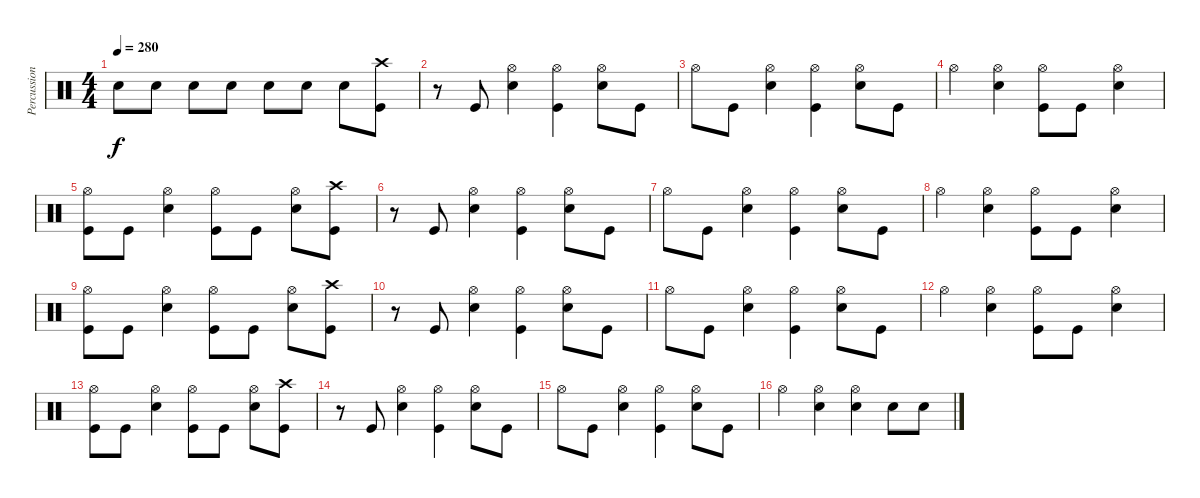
\track ("Percussion" "Percussion") {instrument percussion}
\staff {score}
\articulation defaults
\ts (4 4)
\tempo 280
\clef neutral
\ks c "Snare (hit) 2".8{dy f} "Snare (hit) 2".8 "Snare (hit) 2".8 "Snare (hit) 2".8 "Snare (hit) 2".8 "Snare (hit) 2".8 "Snare (hit) 2".8
("Kick (hit)" "Crash high (hit)").8 |
r.8 "Kick (hit)".8 ("Snare (hit) 2" "Hi-Hat (open)").4 ("Kick (hit)" "Hi-Hat (open)").4 ("Snare (hit) 2" "Hi-Hat (open)").8 "Kick (hit)".8 |
"Hi-Hat (open)".8 "Kick (hit)".8 ("Snare (hit) 2" "Hi-Hat (open)").4 ("Kick (hit)" "Hi-Hat (open)").4 ("Snare (hit) 2" "Hi-Hat (open)").8 "Kick (hit)".8 |
"Hi-Hat (open)".4 ("Snare (hit) 2" "Hi-Hat (open)").4 ("Kick (hit)" "Hi-Hat (open)").8 "Kick (hit)".8 ("Hi-Hat (open)" "Snare (hit) 2").4 |
("Kick (hit)" "Hi-Hat (open)").8 "Kick (hit)".8 ("Snare (hit) 2" "Hi-Hat (open)").4 ("Kick (hit)" "Hi-Hat (open)").8 "Kick (hit)".8 ("Hi-Hat (open)" "Snare (hit) 2").8 ("Kick (hit)" "Crash high (hit)").8 |
r.8 "Kick (hit)".8 ("Snare (hit) 2" "Hi-Hat (open)").4 ("Kick (hit)" "Hi-Hat (open)").4 ("Snare (hit) 2" "Hi-Hat (open)").8 "Kick (hit)".8 |
"Hi-Hat (open)".8 "Kick (hit)".8 ("Snare (hit) 2" "Hi-Hat (open)").4 ("Kick (hit)" "Hi-Hat (open)").4 ("Snare (hit) 2" "Hi-Hat (open)").8 "Kick (hit)".8 |
"Hi-Hat (open)".4 ("Snare (hit) 2" "Hi-Hat (open)").4 ("Kick (hit)" "Hi-Hat (open)").8 "Kick (hit)".8 ("Hi-Hat (open)" "Snare (hit) 2").4 |
("Kick (hit)" "Hi-Hat (open)").8 "Kick (hit)".8 ("Snare (hit) 2" "Hi-Hat (open)").4 ("Kick (hit)" "Hi-Hat (open)").8 "Kick (hit)".8 ("Hi-Hat (open)" "Snare (hit) 2").8 ("Kick (hit)" "Crash high (hit)").8 |
r.8 "Kick (hit)".8 ("Snare (hit) 2" "Hi-Hat (open)").4 ("Kick (hit)" "Hi-Hat (open)").4 ("Snare (hit) 2" "Hi-Hat (open)").8 "Kick (hit)".8 |
"Hi-Hat (open)".8 "Kick (hit)".8 ("Snare (hit) 2" "Hi-Hat (open)").4 ("Kick (hit)" "Hi-Hat (open)").4 ("Snare (hit) 2" "Hi-Hat (open)").8 "Kick (hit)".8 |
"Hi-Hat (open)".4 ("Snare (hit) 2" "Hi-Hat (open)").4 ("Kick (hit)" "Hi-Hat (open)").8 "Kick (hit)".8 ("Hi-Hat (open)" "Snare (hit) 2").4 |
("Kick (hit)" "Hi-Hat (open)").8 "Kick (hit)".8 ("Snare (hit) 2" "Hi-Hat (open)").4 ("Kick (hit)" "Hi-Hat (open)").8 "Kick (hit)".8 ("Hi-Hat (open)" "Snare (hit) 2").8 ("Kick (hit)" "Crash high (hit)").8 |
r.8 "Kick (hit)".8 ("Snare (hit) 2" "Hi-Hat (open)").4 ("Kick (hit)" "Hi-Hat (open)").4 ("Snare (hit) 2" "Hi-Hat (open)").8 "Kick (hit)".8 |
"Hi-Hat (open)".8 "Kick (hit)".8 ("Snare (hit) 2" "Hi-Hat (open)").4 ("Kick (hit)" "Hi-Hat (open)").4 ("Snare (hit) 2" "Hi-Hat (open)").8 "Kick (hit)".8 |
"Hi-Hat (open)".4 ("Snare (hit) 2" "Hi-Hat (open)").4 ("Snare (hit) 2" "Hi-Hat (open)").4 "Snare (hit) 2".8 "Snare (hit) 2".8
